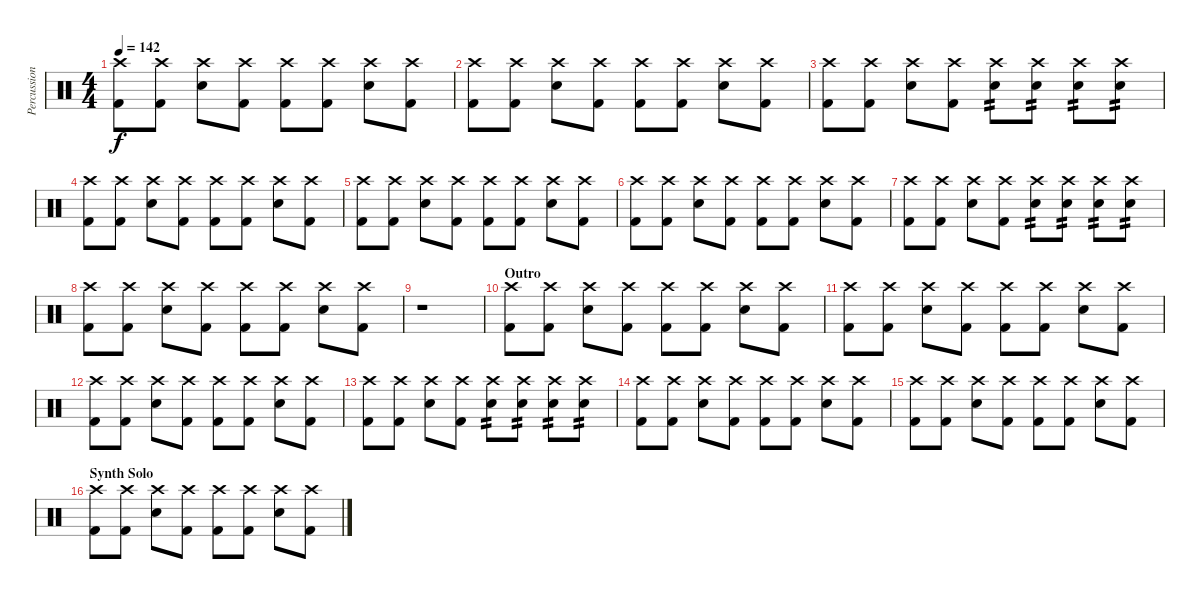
\track ("Percussion" "Percussion") {instrument percussion}
\staff {score}
\articulation defaults
\ts (4 4)
\tempo 142
\clef neutral
\ks c
("Crash high (hit)" "Kick (hit) 2").8{dy f} ("Crash high (hit)" "Kick (hit) 2").8 ("Crash high (hit)" "Snare (hit) 2").8 ("Crash high (hit)" "Kick (hit) 2").8 ("Crash high (hit)" "Kick (hit) 2").8 ("Crash high (hit)" "Kick (hit) 2").8 ("Crash high (hit)" "Snare (hit) 2").8 ("Crash high (hit)" "Kick (hit) 2").8 |
("Crash high (hit)" "Kick (hit) 2").8 ("Crash high (hit)" "Kick (hit) 2").8 ("Crash high (hit)" "Snare (hit) 2").8 ("Crash high (hit)" "Kick (hit) 2").8 ("Crash high (hit)" "Kick (hit) 2").8 ("Crash high (hit)" "Kick (hit) 2").8 ("Crash high (hit)" "Snare (hit) 2").8 ("Crash high (hit)" "Kick (hit) 2").8 |
("Crash high (hit)" "Kick (hit) 2").8 ("Crash high (hit)" "Kick (hit) 2").8 ("Crash high (hit)" "Snare (hit) 2").8 ("Crash high (hit)" "Kick (hit) 2").8 ("Crash high (hit)" "Snare (hit) 2").8{tp 2} ("Crash high (hit)" "Snare (hit) 2").8{tp 2} ("Crash high (hit)" "Snare (hit) 2").8{tp 2} ("Crash high (hit)" "Snare (hit) 2").8{tp 2} |
("Crash high (hit)" "Kick (hit) 2").8 ("Crash high (hit)" "Kick (hit) 2").8 ("Crash high (hit)" "Snare (hit) 2").8 ("Crash high (hit)" "Kick (hit) 2").8 ("Crash high (hit)" "Kick (hit) 2").8 ("Crash high (hit)" "Kick (hit) 2").8 ("Crash high (hit)" "Snare (hit) 2").8 ("Crash high (hit)" "Kick (hit) 2").8 |
("Crash high (hit)" "Kick (hit) 2").8 ("Crash high (hit)" "Kick (hit) 2").8 ("Crash high (hit)" "Snare (hit) 2").8 ("Crash high (hit)" "Kick (hit) 2").8 ("Crash high (hit)" "Kick (hit) 2").8 ("Crash high (hit)" "Kick (hit) 2").8 ("Crash high (hit)" "Snare (hit) 2").8 ("Crash high (hit)" "Kick (hit) 2").8 |
("Crash high (hit)" "Kick (hit) 2").8 ("Crash high (hit)" "Kick (hit) 2").8 ("Crash high (hit)" "Snare (hit) 2").8 ("Crash high (hit)" "Kick (hit) 2").8 ("Crash high (hit)" "Kick (hit) 2").8 ("Crash high (hit)" "Kick (hit) 2").8 ("Crash high (hit)" "Snare (hit) 2").8 ("Crash high (hit)" "Kick (hit) 2").8 |
("Crash high (hit)" "Kick (hit) 2").8 ("Crash high (hit)" "Kick (hit) 2").8 ("Crash high (hit)" "Snare (hit) 2").8 ("Crash high (hit)" "Kick (hit) 2").8 ("Crash high (hit)" "Snare (hit) 2").8{tp 2} ("Crash high (hit)" "Snare (hit) 2").8{tp 2} ("Crash high (hit)" "Snare (hit) 2").8{tp 2} ("Crash high (hit)" "Snare (hit) 2").8{tp 2} |
("Crash high (hit)" "Kick (hit) 2").8 ("Crash high (hit)" "Kick (hit) 2").8 ("Crash high (hit)" "Snare (hit) 2").8 ("Crash high (hit)" "Kick (hit) 2").8 ("Crash high (hit)" "Kick (hit) 2").8 ("Crash high (hit)" "Kick (hit) 2").8 ("Crash high (hit)" "Snare (hit) 2").8 ("Crash high (hit)" "Kick (hit) 2").8 |
r.1 |
\section ("" "Outro")
("Crash high (hit)" "Kick (hit) 2").8 ("Crash high (hit)" "Kick (hit) 2").8 ("Crash high (hit)" "Snare (hit) 2").8 ("Crash high (hit)" "Kick (hit) 2").8 ("Crash high (hit)" "Kick (hit) 2").8 ("Crash high (hit)" "Kick (hit) 2").8 ("Crash high (hit)" "Snare (hit) 2").8 ("Crash high (hit)" "Kick (hit) 2").8 |
("Crash high (hit)" "Kick (hit) 2").8 ("Crash high (hit)" "Kick (hit) 2").8 ("Crash high (hit)" "Snare (hit) 2").8 ("Crash high (hit)" "Kick (hit) 2").8 ("Crash high (hit)" "Kick (hit) 2").8 ("Crash high (hit)" "Kick (hit) 2").8 ("Crash high (hit)" "Snare (hit) 2").8 ("Crash high (hit)" "Kick (hit) 2").8 |
("Crash high (hit)" "Kick (hit) 2").8 ("Crash high (hit)" "Kick (hit) 2").8 ("Crash high (hit)" "Snare (hit) 2").8 ("Crash high (hit)" "Kick (hit) 2").8 ("Crash high (hit)" "Kick (hit) 2").8 ("Crash high (hit)" "Kick (hit) 2").8 ("Crash high (hit)" "Snare (hit) 2").8 ("Crash high (hit)" "Kick (hit) 2").8 |
("Crash high (hit)" "Kick (hit) 2").8 ("Crash high (hit)" "Kick (hit) 2").8 ("Crash high (hit)" "Snare (hit) 2").8 ("Crash high (hit)" "Kick (hit) 2").8 ("Crash high (hit)" "Snare (hit) 2").8{tp 2} ("Crash high (hit)" "Snare (hit) 2").8{tp 2} ("Crash high (hit)" "Snare (hit) 2").8{tp 2} ("Crash high (hit)" "Snare (hit) 2").8{tp 2} |
("Crash high (hit)" "Kick (hit) 2").8 ("Crash high (hit)" "Kick (hit) 2").8 ("Crash high (hit)" "Snare (hit) 2").8 ("Crash high (hit)" "Kick (hit) 2").8 ("Crash high (hit)" "Kick (hit) 2").8 ("Crash high (hit)" "Kick (hit) 2").8 ("Crash high (hit)" "Snare (hit) 2").8 ("Crash high (hit)" "Kick (hit) 2").8 |
("Crash high (hit)" "Kick (hit) 2").8 ("Crash high (hit)" "Kick (hit) 2").8 ("Crash high (hit)" "Snare (hit) 2").8 ("Crash high (hit)" "Kick (hit) 2").8 ("Crash high (hit)" "Kick (hit) 2").8 ("Crash high (hit)" "Kick (hit) 2").8 ("Crash high (hit)" "Snare (hit) 2").8 ("Crash high (hit)" "Kick (hit) 2").8 |
\section ("" "Synth Solo")
("Crash high (hit)" "Kick (hit) 2").8 ("Crash high (hit)" "Kick (hit) 2").8 ("Crash high (hit)" "Snare (hit) 2").8 ("Crash high (hit)" "Kick (hit) 2").8 ("Crash high (hit)" "Kick (hit) 2").8 ("Crash high (hit)" "Kick (hit) 2").8 ("Crash high (hit)" "Snare (hit) 2").8 ("Crash high (hit)" "Kick (hit) 2").8
